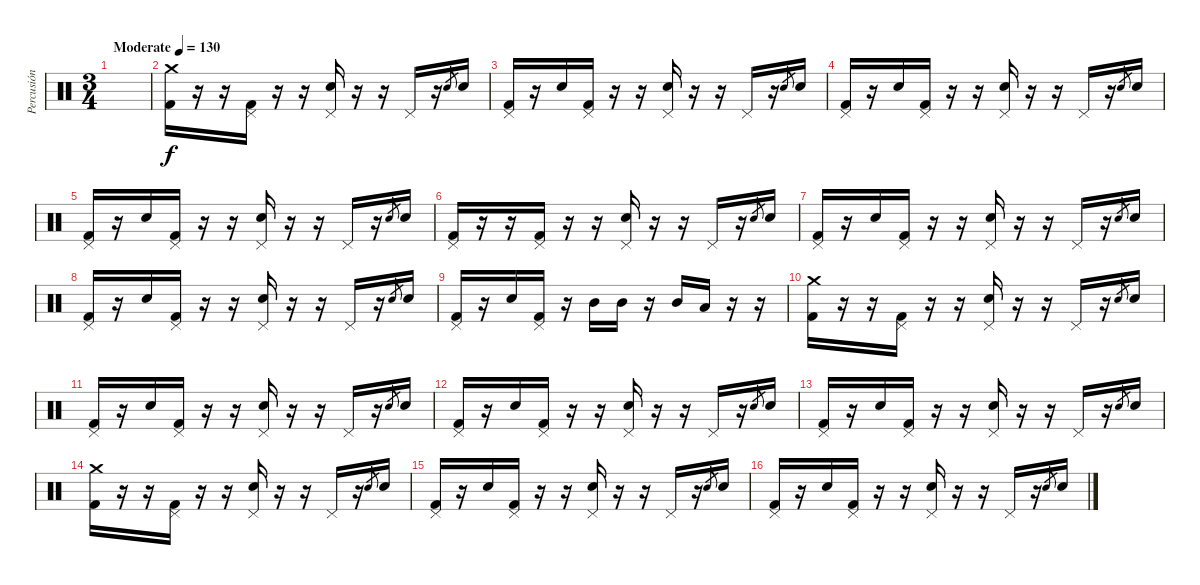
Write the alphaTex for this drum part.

\track ("Percusión" "Percusión") {instrument percussion}
\staff {score}
\articulation defaults
\ts (3 4)
\tempo (130 "Moderate")
\clef neutral
\ks c
|
("Crash medium (hit)" "Kick (hit) 2").16 r.16 r.16 ("Pedal Hi-Hat (hit)" "Kick (hit) 2").16 r.16 r.16 ("Pedal Hi-Hat (hit)" "Electric Snare (hit)").16 r.16 r.16 "Pedal Hi-Hat (hit)".16 r.16 "Electric Snare (hit)".8{gr} "Electric Snare (hit)".16 |
("Pedal Hi-Hat (hit)" "Kick (hit) 2").16 r.16 "Electric Snare (hit)".16 ("Pedal Hi-Hat (hit)" "Kick (hit) 2").16 r.16 r.16 ("Pedal Hi-Hat (hit)" "Electric Snare (hit)").16 r.16 r.16 "Pedal Hi-Hat (hit)".16 r.16 "Electric Snare (hit)".8{gr} "Electric Snare (hit)".16 |
("Pedal Hi-Hat (hit)" "Kick (hit) 2").16 r.16 "Electric Snare (hit)".16 ("Pedal Hi-Hat (hit)" "Kick (hit) 2").16 r.16 r.16 ("Pedal Hi-Hat (hit)" "Electric Snare (hit)").16 r.16 r.16 "Pedal Hi-Hat (hit)".16 r.16 "Electric Snare (hit)".8{gr} "Electric Snare (hit)".16 |
("Pedal Hi-Hat (hit)" "Kick (hit) 2").16 r.16 "Electric Snare (hit)".16 ("Pedal Hi-Hat (hit)" "Kick (hit) 2").16 r.16 r.16 ("Pedal Hi-Hat (hit)" "Electric Snare (hit)").16 r.16 r.16 "Pedal Hi-Hat (hit)".16 r.16 "Electric Snare (hit)".8{gr} "Electric Snare (hit)".16 |
("Pedal Hi-Hat (hit)" "Kick (hit) 2").16 r.16 r.16 ("Pedal Hi-Hat (hit)" "Kick (hit) 2").16 r.16 r.16 ("Pedal Hi-Hat (hit)" "Electric Snare (hit)").16 r.16 r.16 "Pedal Hi-Hat (hit)".16 r.16 "Electric Snare (hit)".8{gr} "Electric Snare (hit)".16 |
("Pedal Hi-Hat (hit)" "Kick (hit) 2").16 r.16 "Electric Snare (hit)".16 ("Pedal Hi-Hat (hit)" "Kick (hit) 2").16 r.16 r.16 ("Pedal Hi-Hat (hit)" "Electric Snare (hit)").16 r.16 r.16 "Pedal Hi-Hat (hit)".16 r.16 "Electric Snare (hit)".8{gr} "Electric Snare (hit)".16 |
("Pedal Hi-Hat (hit)" "Kick (hit) 2").16 r.16 "Electric Snare (hit)".16 ("Pedal Hi-Hat (hit)" "Kick (hit) 2").16 r.16 r.16 ("Pedal Hi-Hat (hit)" "Electric Snare (hit)").16 r.16 r.16 "Pedal Hi-Hat (hit)".16 r.16 "Electric Snare (hit)".8{gr} "Electric Snare (hit)".16 |
("Pedal Hi-Hat (hit)" "Kick (hit) 2").16 r.16 "Electric Snare (hit)".16 ("Pedal Hi-Hat (hit)" "Kick (hit) 2").16 r.16 "Mid Tom (hit)".16 "Mid Tom (hit)".16 r.16 "Mid Tom (hit)".16 "Low Tom (hit)".16 r.16 r.16 |
("Crash medium (hit)" "Kick (hit) 2").16 r.16 r.16 ("Pedal Hi-Hat (hit)" "Kick (hit) 2").16 r.16 r.16 ("Pedal Hi-Hat (hit)" "Electric Snare (hit)").16 r.16 r.16 "Pedal Hi-Hat (hit)".16 r.16 "Electric Snare (hit)".8{gr} "Electric Snare (hit)".16 |
("Pedal Hi-Hat (hit)" "Kick (hit) 2").16 r.16 "Electric Snare (hit)".16 ("Pedal Hi-Hat (hit)" "Kick (hit) 2").16 r.16 r.16 ("Pedal Hi-Hat (hit)" "Electric Snare (hit)").16 r.16 r.16 "Pedal Hi-Hat (hit)".16 r.16 "Electric Snare (hit)".8{gr} "Electric Snare (hit)".16 |
("Pedal Hi-Hat (hit)" "Kick (hit) 2").16 r.16 "Electric Snare (hit)".16 ("Pedal Hi-Hat (hit)" "Kick (hit) 2").16 r.16 r.16 ("Pedal Hi-Hat (hit)" "Electric Snare (hit)").16 r.16 r.16 "Pedal Hi-Hat (hit)".16 r.16 "Electric Snare (hit)".8{gr} "Electric Snare (hit)".16 |
("Pedal Hi-Hat (hit)" "Kick (hit) 2").16 r.16 "Electric Snare (hit)".16 ("Pedal Hi-Hat (hit)" "Kick (hit) 2").16 r.16 r.16 ("Pedal Hi-Hat (hit)" "Electric Snare (hit)").16 r.16 r.16 "Pedal Hi-Hat (hit)".16 r.16 "Electric Snare (hit)".8{gr} "Electric Snare (hit)".16 |
("Crash medium (hit)" "Kick (hit) 2").16 r.16 r.16 ("Pedal Hi-Hat (hit)" "Kick (hit) 2").16 r.16 r.16 ("Pedal Hi-Hat (hit)" "Electric Snare (hit)").16 r.16 r.16 "Pedal Hi-Hat (hit)".16 r.16 "Electric Snare (hit)".8{gr} "Electric Snare (hit)".16 |
("Pedal Hi-Hat (hit)" "Kick (hit) 2").16 r.16 "Electric Snare (hit)".16 ("Pedal Hi-Hat (hit)" "Kick (hit) 2").16 r.16 r.16 ("Pedal Hi-Hat (hit)" "Electric Snare (hit)").16 r.16 r.16 "Pedal Hi-Hat (hit)".16 r.16 "Electric Snare (hit)".8{gr} "Electric Snare (hit)".16 |
("Pedal Hi-Hat (hit)" "Kick (hit) 2").16 r.16 "Electric Snare (hit)".16 ("Pedal Hi-Hat (hit)" "Kick (hit) 2").16 r.16 r.16 ("Pedal Hi-Hat (hit)" "Electric Snare (hit)").16 r.16 r.16 "Pedal Hi-Hat (hit)".16 r.16 "Electric Snare (hit)".8{gr} "Electric Snare (hit)".16
